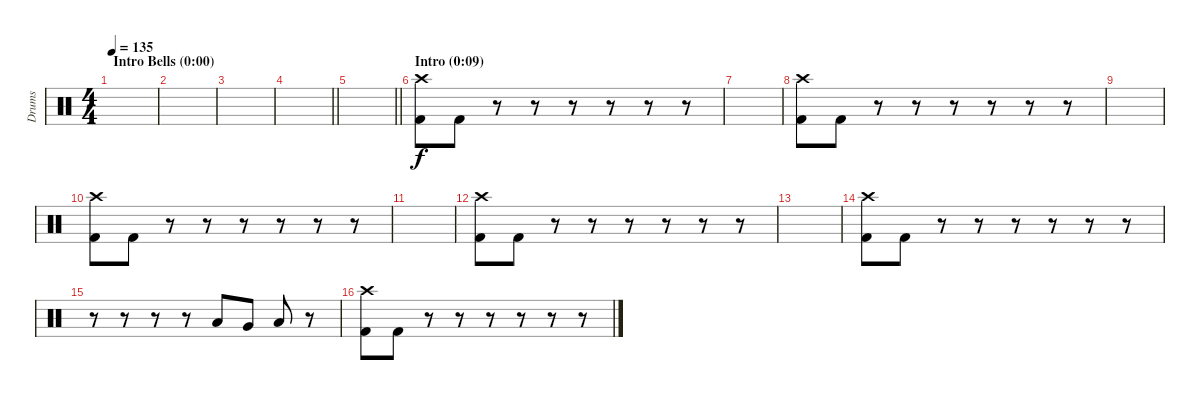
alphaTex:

\track ("Drums" "Drums") {instrument percussion}
\staff {score}
\articulation defaults
\ts (4 4)
\section ("" "Intro Bells (0:00)")
\tempo 135
\clef neutral
\ks c
|
|
|
\barLineRight lightlight
|
\barLineRight lightlight
|
\section ("" "Intro (0:09)")
("Crash high (hit)" "Kick (hit) 2").8 "Kick (hit) 2".8 r.8 r.8 r.8 r.8 r.8 r.8 |
|
("Crash high (hit)" "Kick (hit) 2").8 "Kick (hit) 2".8 r.8 r.8 r.8 r.8 r.8 r.8 |
|
("Crash high (hit)" "Kick (hit) 2").8 "Kick (hit) 2".8 r.8 r.8 r.8 r.8 r.8 r.8 |
|
("Crash high (hit)" "Kick (hit) 2").8 "Kick (hit) 2".8 r.8 r.8 r.8 r.8 r.8 r.8 |
|
("Crash high (hit)" "Kick (hit) 2").8 "Kick (hit) 2".8 r.8 r.8 r.8 r.8 r.8 r.8 |
r.8 r.8 r.8 r.8 "Low Tom (hit)".8 "Very Low Tom (hit)".8 "Low Floor Tom (hit)".8 r.8 |
("Crash high (hit)" "Kick (hit) 2").8 "Kick (hit) 2".8 r.8 r.8 r.8 r.8 r.8 r.8
